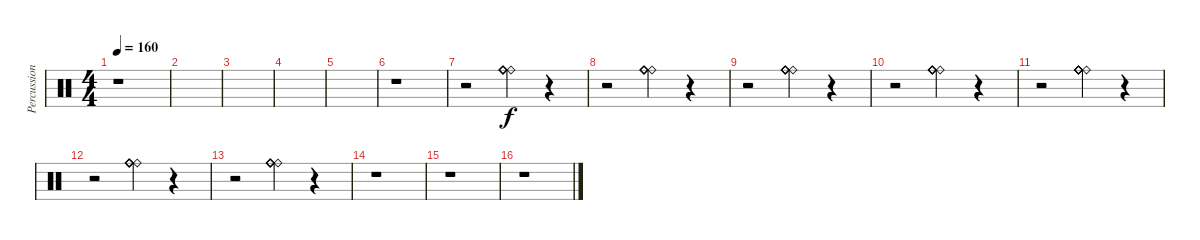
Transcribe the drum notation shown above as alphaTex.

\track ("Percussion" "Percussion") {instrument percussion}
\staff {score}
\articulation defaults
\ts (4 4)
\tempo 160
\clef neutral
\ks c
r.1{dy f} |
|
|
|
|
r.1 |
r.2 ("Ride (bell)" "Ride (bell)" "Ride (bell)" "Ride (bell)" "Ride (bell)" "Ride (bell)").4 r.4 |
r.2 ("Ride (bell)" "Ride (bell)" "Ride (bell)" "Ride (bell)" "Ride (bell)" "Ride (bell)").4 r.4 |
r.2 ("Ride (bell)" "Ride (bell)" "Ride (bell)" "Ride (bell)" "Ride (bell)" "Ride (bell)").4 r.4 |
r.2 ("Ride (bell)" "Ride (bell)" "Ride (bell)" "Ride (bell)" "Ride (bell)" "Ride (bell)").4 r.4 |
r.2 ("Ride (bell)" "Ride (bell)" "Ride (bell)" "Ride (bell)" "Ride (bell)" "Ride (bell)").4 r.4 |
r.2 ("Ride (bell)" "Ride (bell)" "Ride (bell)" "Ride (bell)" "Ride (bell)" "Ride (bell)").4 r.4 |
r.2 ("Ride (bell)" "Ride (bell)" "Ride (bell)" "Ride (bell)" "Ride (bell)" "Ride (bell)").4 r.4 |
r.1 |
r.1 |
r.1
